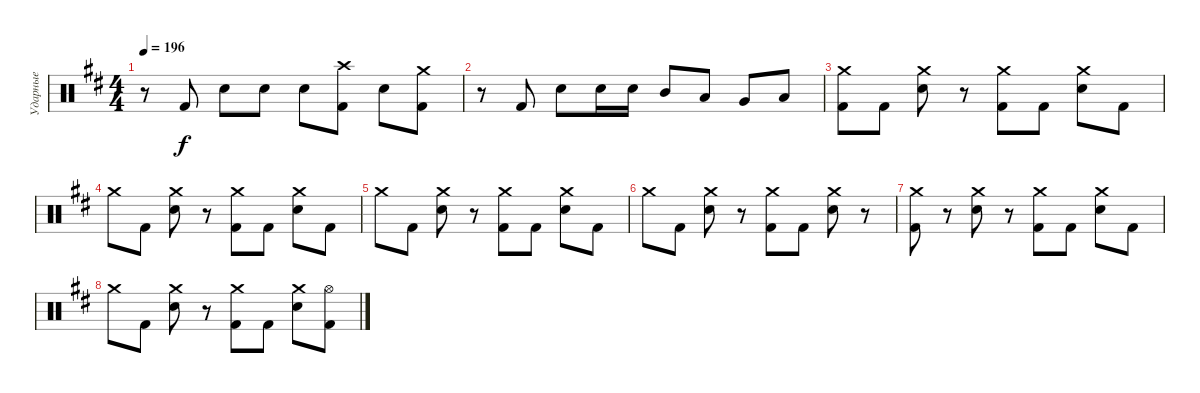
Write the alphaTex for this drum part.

\track ("Ударные" "Ударные") {instrument percussion}
\staff {score}
\articulation defaults
\ts (4 4)
\tempo 196
\clef neutral
\ks d
r.8{dy f} "Kick (hit) 2".8 "Electric Snare (hit)".8 "Electric Snare (hit)".8 "Electric Snare (hit)".8 ("Crash high (hit)" "Kick (hit) 2").8 "Electric Snare (hit)".8 ("Crash medium (hit)" "Kick (hit) 2").8 |
r.8 "Kick (hit) 2".8 "Electric Snare (hit)".8 "Electric Snare (hit)".16 "Electric Snare (hit)".16 "Mid Tom (hit)".8 "Low Tom (hit)".8 "Very Low Tom (hit)".8 "Low Floor Tom (hit)".8 |
("Crash medium (hit)" "Kick (hit) 2").8 "Kick (hit) 2".8 ("Crash medium (hit)" "Electric Snare (hit)").8 r.8 ("Crash medium (hit)" "Kick (hit) 2").8 "Kick (hit) 2".8 ("Crash medium (hit)" "Electric Snare (hit)").8 "Kick (hit) 2".8 |
"Crash medium (hit)".8 "Kick (hit) 2".8 ("Crash medium (hit)" "Electric Snare (hit)").8 r.8 ("Crash medium (hit)" "Kick (hit) 2").8 "Kick (hit) 2".8 ("Crash medium (hit)" "Electric Snare (hit)").8 "Kick (hit) 2".8 |
"Crash medium (hit)".8 "Kick (hit) 2".8 ("Crash medium (hit)" "Electric Snare (hit)").8 r.8 ("Crash medium (hit)" "Kick (hit) 2").8 "Kick (hit) 2".8 ("Crash medium (hit)" "Electric Snare (hit)").8 "Kick (hit) 2".8 |
"Crash medium (hit)".8 "Kick (hit) 2".8 ("Crash medium (hit)" "Electric Snare (hit)").8 r.8 ("Crash medium (hit)" "Kick (hit) 2").8 "Kick (hit) 2".8 ("Crash medium (hit)" "Electric Snare (hit)").8 r.8 |
("Crash medium (hit)" "Kick (hit) 2").8 r.8 ("Crash medium (hit)" "Electric Snare (hit)").8 r.8 ("Crash medium (hit)" "Kick (hit) 2").8 "Kick (hit) 2".8 ("Crash medium (hit)" "Electric Snare (hit)").8 "Kick (hit) 2".8 |
"Crash medium (hit)".8 "Kick (hit) 2".8 ("Crash medium (hit)" "Electric Snare (hit)").8 r.8 ("Crash medium (hit)" "Kick (hit) 2").8 "Kick (hit) 2".8 ("Crash medium (hit)" "Electric Snare (hit)").8 ("Hi-Hat (open)" "Kick (hit) 2").8
